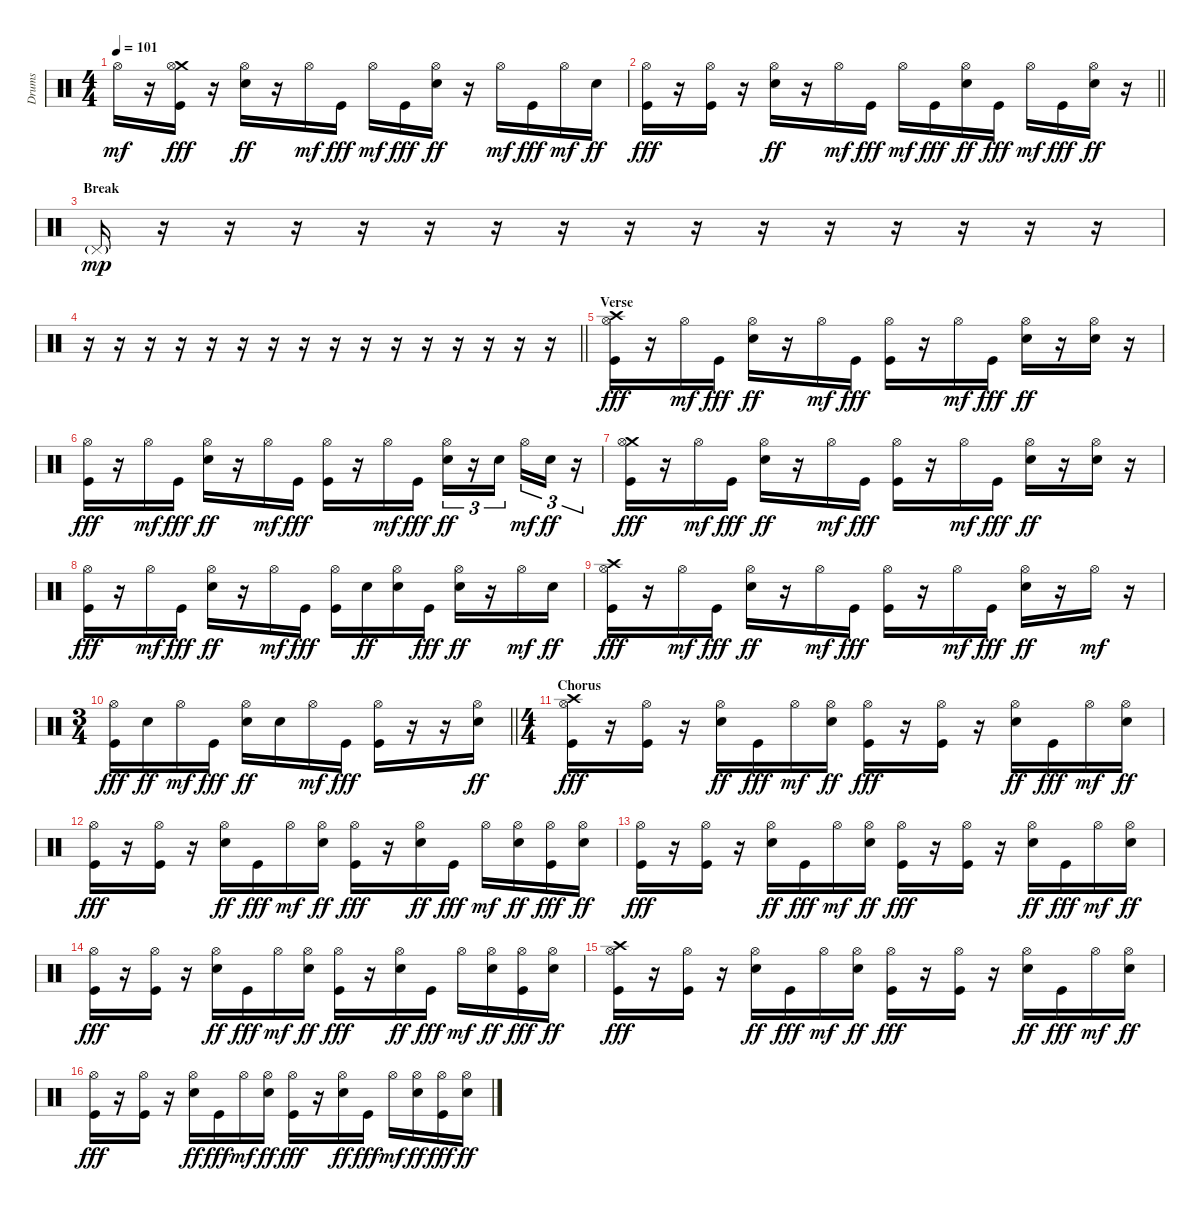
\track ("Drums" "Drums") {instrument percussion}
\staff {score}
\articulation defaults
\ts (4 4)
\tempo 101
\clef neutral
\ks c "Hi-Hat (open)".16{dy mf}
r.16 ("Crash medium (hit)" "Hi-Hat (open)" "Kick (hit)").16{dy fff} r.16 ("Hi-Hat (open)" "Electric Snare (hit)").16{dy ff} r.16 "Hi-Hat (open)".16{dy mf} "Kick (hit)".16{dy fff} "Hi-Hat (open)".16{dy mf} "Kick (hit)".16{dy fff} ("Hi-Hat (open)" "Electric Snare (hit)").16{dy ff} r.16 "Hi-Hat (open)".16{dy mf} "Kick (hit)".16{dy fff} "Hi-Hat (open)".16{dy mf} "Electric Snare (hit)".16{dy ff} |
\barLineRight lightlight
("Hi-Hat (open)" "Kick (hit)").16{dy fff} r.16 ("Hi-Hat (open)" "Kick (hit)").16 r.16 ("Hi-Hat (open)" "Electric Snare (hit)").16{dy ff} r.16 "Hi-Hat (open)".16{dy mf} "Kick (hit)".16{dy fff} "Hi-Hat (open)".16{dy mf} "Kick (hit)".16{dy fff} ("Hi-Hat (open)" "Electric Snare (hit)").16{dy ff} "Kick (hit)".16{dy fff} "Hi-Hat (open)".16{dy mf} "Kick (hit)".16{dy fff} ("Hi-Hat (open)" "Electric Snare (hit)").16{dy ff} r.16 |
\section ("" "Break")
"Pedal Hi-Hat (hit)"{g}.16{dy mp} r.16 r.16 r.16 r.16 r.16 r.16 r.16 r.16 r.16 r.16 r.16 r.16 r.16 r.16 r.16 |
\barLineRight lightlight
r.16 r.16 r.16 r.16 r.16 r.16 r.16 r.16 r.16 r.16 r.16 r.16 r.16 r.16 r.16 r.16 |
\section ("" "Verse")
("Crash high (hit)" "Hi-Hat (open)" "Kick (hit)").16{dy fff} r.16 "Hi-Hat (open)".16{dy mf} "Kick (hit)".16{dy fff} ("Hi-Hat (open)" "Electric Snare (hit)").16{dy ff} r.16 "Hi-Hat (open)".16{dy mf} "Kick (hit)".16{dy fff} ("Hi-Hat (open)" "Kick (hit)").16 r.16 "Hi-Hat (open)".16{dy mf} "Kick (hit)".16{dy fff} ("Hi-Hat (open)" "Electric Snare (hit)").16{dy ff} r.16 ("Hi-Hat (open)" "Electric Snare (hit)").16 r.16 |
("Hi-Hat (open)" "Kick (hit)").16{dy fff} r.16 "Hi-Hat (open)".16{dy mf} "Kick (hit)".16{dy fff} ("Hi-Hat (open)" "Electric Snare (hit)").16{dy ff} r.16 "Hi-Hat (open)".16{dy mf} "Kick (hit)".16{dy fff} ("Hi-Hat (open)" "Kick (hit)").16 r.16 "Hi-Hat (open)".16{dy mf} "Kick (hit)".16{dy fff} ("Hi-Hat (open)" "Electric Snare (hit)").16{tu (3 2) dy ff} r.16{tu (3 2)} "Electric Snare (hit)".16{tu (3 2) beam splitsecondary} "Hi-Hat (open)".16{tu (3 2) dy mf} "Electric Snare (hit)".16{tu (3 2) dy ff} r.16{tu (3 2)} |
("Crash medium (hit)" "Hi-Hat (open)" "Kick (hit)").16{dy fff} r.16 "Hi-Hat (open)".16{dy mf} "Kick (hit)".16{dy fff} ("Hi-Hat (open)" "Electric Snare (hit)").16{dy ff} r.16 "Hi-Hat (open)".16{dy mf} "Kick (hit)".16{dy fff} ("Hi-Hat (open)" "Kick (hit)").16 r.16 "Hi-Hat (open)".16{dy mf} "Kick (hit)".16{dy fff} ("Hi-Hat (open)" "Electric Snare (hit)").16{dy ff} r.16 ("Hi-Hat (open)" "Electric Snare (hit)").16 r.16 |
("Hi-Hat (open)" "Kick (hit)").16{dy fff} r.16 "Hi-Hat (open)".16{dy mf} "Kick (hit)".16{dy fff} ("Hi-Hat (open)" "Electric Snare (hit)").16{dy ff} r.16 "Hi-Hat (open)".16{dy mf} "Kick (hit)".16{dy fff} ("Hi-Hat (open)" "Kick (hit)").16 "Electric Snare (hit)".16{dy ff} ("Hi-Hat (open)" "Electric Snare (hit)").16 "Kick (hit)".16{dy fff} ("Hi-Hat (open)" "Electric Snare (hit)").16{dy ff} r.16 "Hi-Hat (open)".16{dy mf} "Electric Snare (hit)".16{dy ff} |
("Crash high (hit)" "Hi-Hat (open)" "Kick (hit)").16{dy fff} r.16 "Hi-Hat (open)".16{dy mf} "Kick (hit)".16{dy fff} ("Hi-Hat (open)" "Electric Snare (hit)").16{dy ff} r.16 "Hi-Hat (open)".16{dy mf} "Kick (hit)".16{dy fff} ("Hi-Hat (open)" "Kick (hit)").16 r.16 "Hi-Hat (open)".16{dy mf} "Kick (hit)".16{dy fff} ("Hi-Hat (open)" "Electric Snare (hit)").16{dy ff} r.16 "Hi-Hat (open)".16{dy mf} r.16 |
\ts (3 4)
\barLineRight lightlight
("Hi-Hat (open)" "Kick (hit)").16{dy fff} "Electric Snare (hit)".16{dy ff} "Hi-Hat (open)".16{dy mf} "Kick (hit)".16{dy fff} ("Hi-Hat (open)" "Electric Snare (hit)").16{dy ff} "Electric Snare (hit)".16 "Hi-Hat (open)".16{dy mf} "Kick (hit)".16{dy fff} ("Hi-Hat (open)" "Kick (hit)").16 r.16 r.16 ("Hi-Hat (open)" "Electric Snare (hit)").16{dy ff} |
\ts (4 4)
\section ("" "Chorus")
("Crash high (hit)" "Hi-Hat (open)" "Kick (hit)").16{dy fff} r.16 ("Hi-Hat (open)" "Kick (hit)").16 r.16 ("Hi-Hat (open)" "Electric Snare (hit)").16{dy ff} "Kick (hit)".16{dy fff} "Hi-Hat (open)".16{dy mf} ("Hi-Hat (open)" "Electric Snare (hit)").16{dy ff} ("Hi-Hat (open)" "Kick (hit)").16{dy fff} r.16 ("Hi-Hat (open)" "Kick (hit)").16 r.16 ("Hi-Hat (open)" "Electric Snare (hit)").16{dy ff} "Kick (hit)".16{dy fff} "Hi-Hat (open)".16{dy mf} ("Hi-Hat (open)" "Electric Snare (hit)").16{dy ff} |
("Hi-Hat (open)" "Kick (hit)").16{dy fff} r.16 ("Hi-Hat (open)" "Kick (hit)").16 r.16 ("Hi-Hat (open)" "Electric Snare (hit)").16{dy ff} "Kick (hit)".16{dy fff} "Hi-Hat (open)".16{dy mf} ("Hi-Hat (open)" "Electric Snare (hit)").16{dy ff} ("Hi-Hat (open)" "Kick (hit)").16{dy fff} r.16 ("Hi-Hat (open)" "Electric Snare (hit)").16{dy ff} "Kick (hit)".16{dy fff} "Hi-Hat (open)".16{dy mf} ("Hi-Hat (open)" "Electric Snare (hit)").16{dy ff} ("Hi-Hat (open)" "Kick (hit)").16{dy fff} ("Hi-Hat (open)" "Electric Snare (hit)").16{dy ff} |
("Hi-Hat (open)" "Kick (hit)").16{dy fff} r.16 ("Hi-Hat (open)" "Kick (hit)").16 r.16 ("Hi-Hat (open)" "Electric Snare (hit)").16{dy ff} "Kick (hit)".16{dy fff} "Hi-Hat (open)".16{dy mf} ("Hi-Hat (open)" "Electric Snare (hit)").16{dy ff} ("Hi-Hat (open)" "Kick (hit)").16{dy fff} r.16 ("Hi-Hat (open)" "Kick (hit)").16 r.16 ("Hi-Hat (open)" "Electric Snare (hit)").16{dy ff} "Kick (hit)".16{dy fff} "Hi-Hat (open)".16{dy mf} ("Hi-Hat (open)" "Electric Snare (hit)").16{dy ff} |
("Hi-Hat (open)" "Kick (hit)").16{dy fff} r.16 ("Hi-Hat (open)" "Kick (hit)").16 r.16 ("Hi-Hat (open)" "Electric Snare (hit)").16{dy ff} "Kick (hit)".16{dy fff} "Hi-Hat (open)".16{dy mf} ("Hi-Hat (open)" "Electric Snare (hit)").16{dy ff} ("Hi-Hat (open)" "Kick (hit)").16{dy fff} r.16 ("Hi-Hat (open)" "Electric Snare (hit)").16{dy ff} "Kick (hit)".16{dy fff} "Hi-Hat (open)".16{dy mf} ("Hi-Hat (open)" "Electric Snare (hit)").16{dy ff} ("Hi-Hat (open)" "Kick (hit)").16{dy fff} ("Hi-Hat (open)" "Electric Snare (hit)").16{dy ff} |
("Crash high (hit)" "Hi-Hat (open)" "Kick (hit)").16{dy fff} r.16 ("Hi-Hat (open)" "Kick (hit)").16 r.16 ("Hi-Hat (open)" "Electric Snare (hit)").16{dy ff} "Kick (hit)".16{dy fff} "Hi-Hat (open)".16{dy mf} ("Hi-Hat (open)" "Electric Snare (hit)").16{dy ff} ("Hi-Hat (open)" "Kick (hit)").16{dy fff} r.16 ("Hi-Hat (open)" "Kick (hit)").16 r.16 ("Hi-Hat (open)" "Electric Snare (hit)").16{dy ff} "Kick (hit)".16{dy fff} "Hi-Hat (open)".16{dy mf} ("Hi-Hat (open)" "Electric Snare (hit)").16{dy ff} |
("Hi-Hat (open)" "Kick (hit)").16{dy fff} r.16 ("Hi-Hat (open)" "Kick (hit)").16 r.16 ("Hi-Hat (open)" "Electric Snare (hit)").16{dy ff} "Kick (hit)".16{dy fff} "Hi-Hat (open)".16{dy mf} ("Hi-Hat (open)" "Electric Snare (hit)").16{dy ff} ("Hi-Hat (open)" "Kick (hit)").16{dy fff} r.16 ("Hi-Hat (open)" "Electric Snare (hit)").16{dy ff} "Kick (hit)".16{dy fff} "Hi-Hat (open)".16{dy mf} ("Hi-Hat (open)" "Electric Snare (hit)").16{dy ff} ("Hi-Hat (open)" "Kick (hit)").16{dy fff} ("Hi-Hat (open)" "Electric Snare (hit)").16{dy ff}
